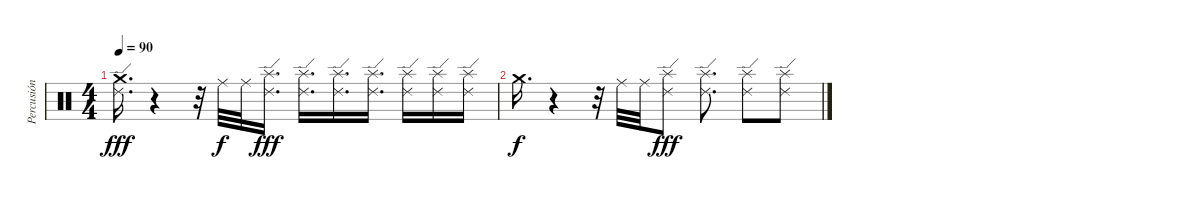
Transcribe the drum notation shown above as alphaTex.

\track ("Percusión" "Percusión") {instrument percussion}
\staff {score}
\articulation defaults
\ts (4 4)
\tempo 90
\clef neutral
\ks c
("Ride (edge) 2" "Crash medium (hit)").16{d dy fff} r.4 r.32 "Ride (middle)".32{dy f} "Ride (middle)".32 ("Splash (hit)" "Ride (edge) 2").16{d dy fff} ("Splash (hit)" "Ride (edge) 2").16{d} ("Splash (hit)" "Ride (edge) 2").16{d} ("Splash (hit)" "Ride (edge) 2").16{d} ("Splash (hit)" "Ride (edge) 2").16 ("Splash (hit)" "Ride (edge) 2").16 ("Splash (hit)" "Ride (edge) 2").16 |
"Crash medium (hit)".16{d dy f} r.4 r.32 "Ride (middle)".32 "Ride (middle)".32 ("Splash (hit)" "Ride (edge) 2").8{dy fff} ("Splash (hit)" "Ride (edge) 2").8{d} ("Splash (hit)" "Ride (edge) 2").8 ("Splash (hit)" "Ride (edge) 2").8
